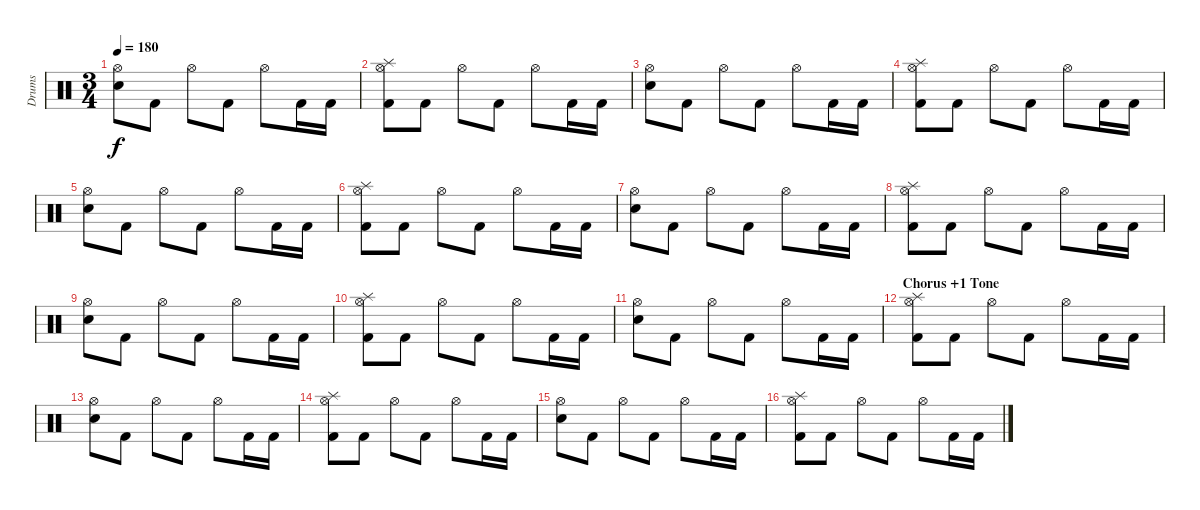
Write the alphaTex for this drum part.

\track ("Drums" "Drums") {instrument percussion}
\staff {score}
\articulation defaults
\ts (3 4)
\tempo 180
\clef neutral
\ks c
("Hi-Hat (open)" "Electric Snare (hit)").8{dy f} "Kick (hit) 2".8 "Hi-Hat (open)".8 "Kick (hit) 2".8 "Hi-Hat (open)".8 "Kick (hit) 2".16 "Kick (hit) 2".16 |
("Splash (hit)" "Hi-Hat (open)" "Kick (hit) 2").8 "Kick (hit) 2".8 "Hi-Hat (open)".8 "Kick (hit) 2".8 "Hi-Hat (open)".8 "Kick (hit) 2".16 "Kick (hit) 2".16 |
("Hi-Hat (open)" "Electric Snare (hit)").8 "Kick (hit) 2".8 "Hi-Hat (open)".8 "Kick (hit) 2".8 "Hi-Hat (open)".8 "Kick (hit) 2".16 "Kick (hit) 2".16 |
("Splash (hit)" "Hi-Hat (open)" "Kick (hit) 2").8 "Kick (hit) 2".8 "Hi-Hat (open)".8 "Kick (hit) 2".8 "Hi-Hat (open)".8 "Kick (hit) 2".16 "Kick (hit) 2".16 |
("Hi-Hat (open)" "Electric Snare (hit)").8 "Kick (hit) 2".8 "Hi-Hat (open)".8 "Kick (hit) 2".8 "Hi-Hat (open)".8 "Kick (hit) 2".16 "Kick (hit) 2".16 |
("Splash (hit)" "Hi-Hat (open)" "Kick (hit) 2").8 "Kick (hit) 2".8 "Hi-Hat (open)".8 "Kick (hit) 2".8 "Hi-Hat (open)".8 "Kick (hit) 2".16 "Kick (hit) 2".16 |
("Hi-Hat (open)" "Electric Snare (hit)").8 "Kick (hit) 2".8 "Hi-Hat (open)".8 "Kick (hit) 2".8 "Hi-Hat (open)".8 "Kick (hit) 2".16 "Kick (hit) 2".16 |
("Splash (hit)" "Hi-Hat (open)" "Kick (hit) 2").8 "Kick (hit) 2".8 "Hi-Hat (open)".8 "Kick (hit) 2".8 "Hi-Hat (open)".8 "Kick (hit) 2".16 "Kick (hit) 2".16 |
("Hi-Hat (open)" "Electric Snare (hit)").8 "Kick (hit) 2".8 "Hi-Hat (open)".8 "Kick (hit) 2".8 "Hi-Hat (open)".8 "Kick (hit) 2".16 "Kick (hit) 2".16 |
("Splash (hit)" "Hi-Hat (open)" "Kick (hit) 2").8 "Kick (hit) 2".8 "Hi-Hat (open)".8 "Kick (hit) 2".8 "Hi-Hat (open)".8 "Kick (hit) 2".16 "Kick (hit) 2".16 |
("Hi-Hat (open)" "Electric Snare (hit)").8 "Kick (hit) 2".8 "Hi-Hat (open)".8 "Kick (hit) 2".8 "Hi-Hat (open)".8 "Kick (hit) 2".16 "Kick (hit) 2".16 |
\section ("" "Chorus +1 Tone")
("Splash (hit)" "Hi-Hat (open)" "Kick (hit) 2").8 "Kick (hit) 2".8 "Hi-Hat (open)".8 "Kick (hit) 2".8 "Hi-Hat (open)".8 "Kick (hit) 2".16 "Kick (hit) 2".16 |
("Hi-Hat (open)" "Electric Snare (hit)").8 "Kick (hit) 2".8 "Hi-Hat (open)".8 "Kick (hit) 2".8 "Hi-Hat (open)".8 "Kick (hit) 2".16 "Kick (hit) 2".16 |
("Splash (hit)" "Hi-Hat (open)" "Kick (hit) 2").8 "Kick (hit) 2".8 "Hi-Hat (open)".8 "Kick (hit) 2".8 "Hi-Hat (open)".8 "Kick (hit) 2".16 "Kick (hit) 2".16 |
("Hi-Hat (open)" "Electric Snare (hit)").8 "Kick (hit) 2".8 "Hi-Hat (open)".8 "Kick (hit) 2".8 "Hi-Hat (open)".8 "Kick (hit) 2".16 "Kick (hit) 2".16 |
("Splash (hit)" "Hi-Hat (open)" "Kick (hit) 2").8 "Kick (hit) 2".8 "Hi-Hat (open)".8 "Kick (hit) 2".8 "Hi-Hat (open)".8 "Kick (hit) 2".16 "Kick (hit) 2".16
